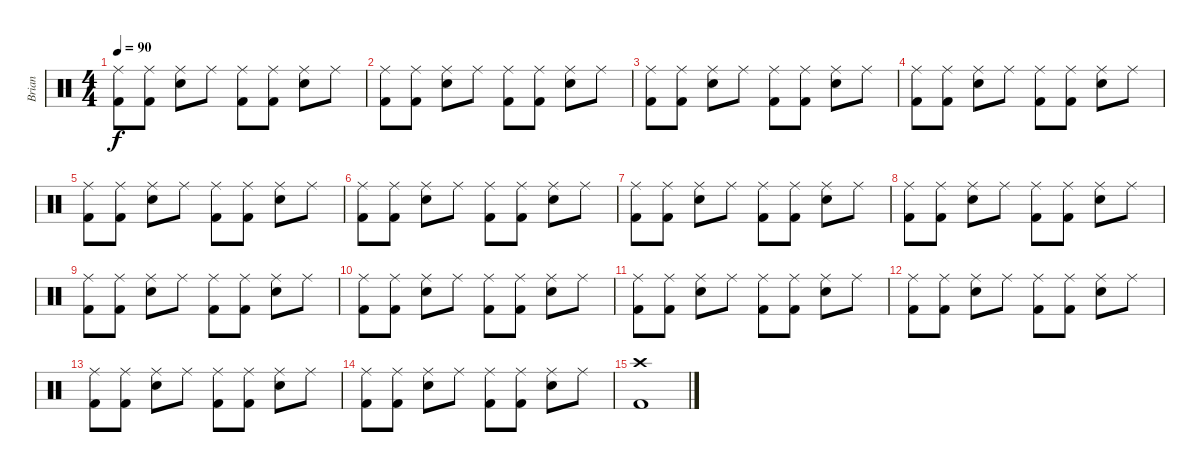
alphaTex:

\track ("Brian" "Brian") {instrument percussion}
\staff {score}
\articulation defaults
\ts (4 4)
\tempo 90
\clef neutral
\ks c
("Ride (middle)" "Kick (hit) 2").8{dy f} ("Ride (middle)" "Kick (hit) 2").8 ("Ride (middle)" "Electric Snare (hit)").8 "Ride (middle)".8 ("Ride (middle)" "Kick (hit) 2").8 ("Ride (middle)" "Kick (hit) 2").8 ("Ride (middle)" "Electric Snare (hit)").8 "Ride (middle)".8 |
("Ride (middle)" "Kick (hit) 2").8 ("Ride (middle)" "Kick (hit) 2").8 ("Ride (middle)" "Electric Snare (hit)").8 "Ride (middle)".8 ("Ride (middle)" "Kick (hit) 2").8 ("Ride (middle)" "Kick (hit) 2").8 ("Ride (middle)" "Electric Snare (hit)").8 "Ride (middle)".8 |
("Ride (middle)" "Kick (hit) 2").8 ("Ride (middle)" "Kick (hit) 2").8 ("Ride (middle)" "Electric Snare (hit)").8 "Ride (middle)".8 ("Ride (middle)" "Kick (hit) 2").8 ("Ride (middle)" "Kick (hit) 2").8 ("Ride (middle)" "Electric Snare (hit)").8 "Ride (middle)".8 |
("Ride (middle)" "Kick (hit) 2").8 ("Ride (middle)" "Kick (hit) 2").8 ("Ride (middle)" "Electric Snare (hit)").8 "Ride (middle)".8 ("Ride (middle)" "Kick (hit) 2").8 ("Ride (middle)" "Kick (hit) 2").8 ("Ride (middle)" "Electric Snare (hit)").8 "Ride (middle)".8 |
("Ride (middle)" "Kick (hit) 2").8 ("Ride (middle)" "Kick (hit) 2").8 ("Ride (middle)" "Electric Snare (hit)").8 "Ride (middle)".8 ("Ride (middle)" "Kick (hit) 2").8 ("Ride (middle)" "Kick (hit) 2").8 ("Ride (middle)" "Electric Snare (hit)").8 "Ride (middle)".8 |
("Ride (middle)" "Kick (hit) 2").8 ("Ride (middle)" "Kick (hit) 2").8 ("Ride (middle)" "Electric Snare (hit)").8 "Ride (middle)".8 ("Ride (middle)" "Kick (hit) 2").8 ("Ride (middle)" "Kick (hit) 2").8 ("Ride (middle)" "Electric Snare (hit)").8 "Ride (middle)".8 |
("Ride (middle)" "Kick (hit) 2").8 ("Ride (middle)" "Kick (hit) 2").8 ("Ride (middle)" "Electric Snare (hit)").8 "Ride (middle)".8 ("Ride (middle)" "Kick (hit) 2").8 ("Ride (middle)" "Kick (hit) 2").8 ("Ride (middle)" "Electric Snare (hit)").8 "Ride (middle)".8 |
("Ride (middle)" "Kick (hit) 2").8 ("Ride (middle)" "Kick (hit) 2").8 ("Ride (middle)" "Electric Snare (hit)").8 "Ride (middle)".8 ("Ride (middle)" "Kick (hit) 2").8 ("Ride (middle)" "Kick (hit) 2").8 ("Ride (middle)" "Electric Snare (hit)").8 "Ride (middle)".8 |
("Ride (middle)" "Kick (hit) 2").8 ("Ride (middle)" "Kick (hit) 2").8 ("Ride (middle)" "Electric Snare (hit)").8 "Ride (middle)".8 ("Ride (middle)" "Kick (hit) 2").8 ("Ride (middle)" "Kick (hit) 2").8 ("Ride (middle)" "Electric Snare (hit)").8 "Ride (middle)".8 |
("Ride (middle)" "Kick (hit) 2").8 ("Ride (middle)" "Kick (hit) 2").8 ("Ride (middle)" "Electric Snare (hit)").8 "Ride (middle)".8 ("Ride (middle)" "Kick (hit) 2").8 ("Ride (middle)" "Kick (hit) 2").8 ("Ride (middle)" "Electric Snare (hit)").8 "Ride (middle)".8 |
("Ride (middle)" "Kick (hit) 2").8 ("Ride (middle)" "Kick (hit) 2").8 ("Ride (middle)" "Electric Snare (hit)").8 "Ride (middle)".8 ("Ride (middle)" "Kick (hit) 2").8 ("Ride (middle)" "Kick (hit) 2").8 ("Ride (middle)" "Electric Snare (hit)").8 "Ride (middle)".8 |
("Ride (middle)" "Kick (hit) 2").8 ("Ride (middle)" "Kick (hit) 2").8 ("Ride (middle)" "Electric Snare (hit)").8 "Ride (middle)".8 ("Ride (middle)" "Kick (hit) 2").8 ("Ride (middle)" "Kick (hit) 2").8 ("Ride (middle)" "Electric Snare (hit)").8 "Ride (middle)".8 |
("Ride (middle)" "Kick (hit) 2").8 ("Ride (middle)" "Kick (hit) 2").8 ("Ride (middle)" "Electric Snare (hit)").8 "Ride (middle)".8 ("Ride (middle)" "Kick (hit) 2").8 ("Ride (middle)" "Kick (hit) 2").8 ("Ride (middle)" "Electric Snare (hit)").8 "Ride (middle)".8 |
("Ride (middle)" "Kick (hit) 2").8 ("Ride (middle)" "Kick (hit) 2").8 ("Ride (middle)" "Electric Snare (hit)").8 "Ride (middle)".8 ("Ride (middle)" "Kick (hit) 2").8 ("Ride (middle)" "Kick (hit) 2").8 ("Ride (middle)" "Electric Snare (hit)").8 "Ride (middle)".8 |
("Crash high (hit)" "Kick (hit) 2").1
